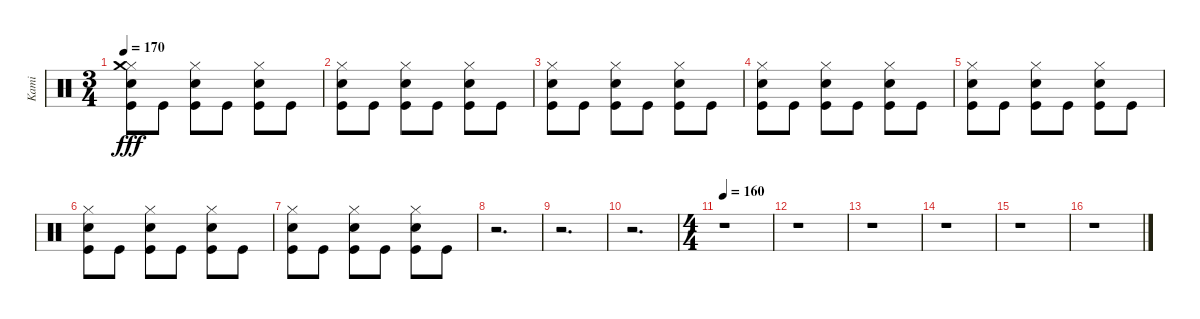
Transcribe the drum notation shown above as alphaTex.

\track ("Kami" "Kami") {instrument percussion}
\staff {score}
\articulation defaults
\ts (3 4)
\tempo 170
\clef neutral
\ks c
("Kick (hit)" "Snare (hit) 2" "Hi-Hat (closed)" "Crash medium (hit)").8{dy fff} "Kick (hit)".8 ("Kick (hit)" "Snare (hit) 2" "Hi-Hat (closed)").8 "Kick (hit)".8 ("Kick (hit)" "Snare (hit) 2" "Hi-Hat (closed)").8 "Kick (hit)".8 |
("Kick (hit)" "Snare (hit) 2" "Hi-Hat (closed)").8 "Kick (hit)".8 ("Kick (hit)" "Snare (hit) 2" "Hi-Hat (closed)").8 "Kick (hit)".8 ("Kick (hit)" "Snare (hit) 2" "Hi-Hat (closed)").8 "Kick (hit)".8 |
("Kick (hit)" "Snare (hit) 2" "Hi-Hat (closed)").8 "Kick (hit)".8 ("Kick (hit)" "Snare (hit) 2" "Hi-Hat (closed)").8 "Kick (hit)".8 ("Kick (hit)" "Snare (hit) 2" "Hi-Hat (closed)").8 "Kick (hit)".8 |
("Kick (hit)" "Snare (hit) 2" "Hi-Hat (closed)").8 "Kick (hit)".8 ("Kick (hit)" "Snare (hit) 2" "Hi-Hat (closed)").8 "Kick (hit)".8 ("Kick (hit)" "Snare (hit) 2" "Hi-Hat (closed)").8 "Kick (hit)".8 |
("Kick (hit)" "Snare (hit) 2" "Hi-Hat (closed)").8 "Kick (hit)".8 ("Kick (hit)" "Snare (hit) 2" "Hi-Hat (closed)").8 "Kick (hit)".8 ("Kick (hit)" "Snare (hit) 2" "Hi-Hat (closed)").8 "Kick (hit)".8 |
("Kick (hit)" "Snare (hit) 2" "Hi-Hat (closed)").8 "Kick (hit)".8 ("Kick (hit)" "Snare (hit) 2" "Hi-Hat (closed)").8 "Kick (hit)".8 ("Kick (hit)" "Snare (hit) 2" "Hi-Hat (closed)").8 "Kick (hit)".8 |
("Kick (hit)" "Snare (hit) 2" "Hi-Hat (closed)").8 "Kick (hit)".8 ("Kick (hit)" "Snare (hit) 2" "Hi-Hat (closed)").8 "Kick (hit)".8 ("Kick (hit)" "Snare (hit) 2" "Hi-Hat (closed)").8 "Kick (hit)".8 |
r.2{d} |
r.2{d} |
r.2{d} |
\ts (4 4)
\tempo 160
r.1 |
r.1 |
r.1 |
r.1 |
r.1 |
r.1
